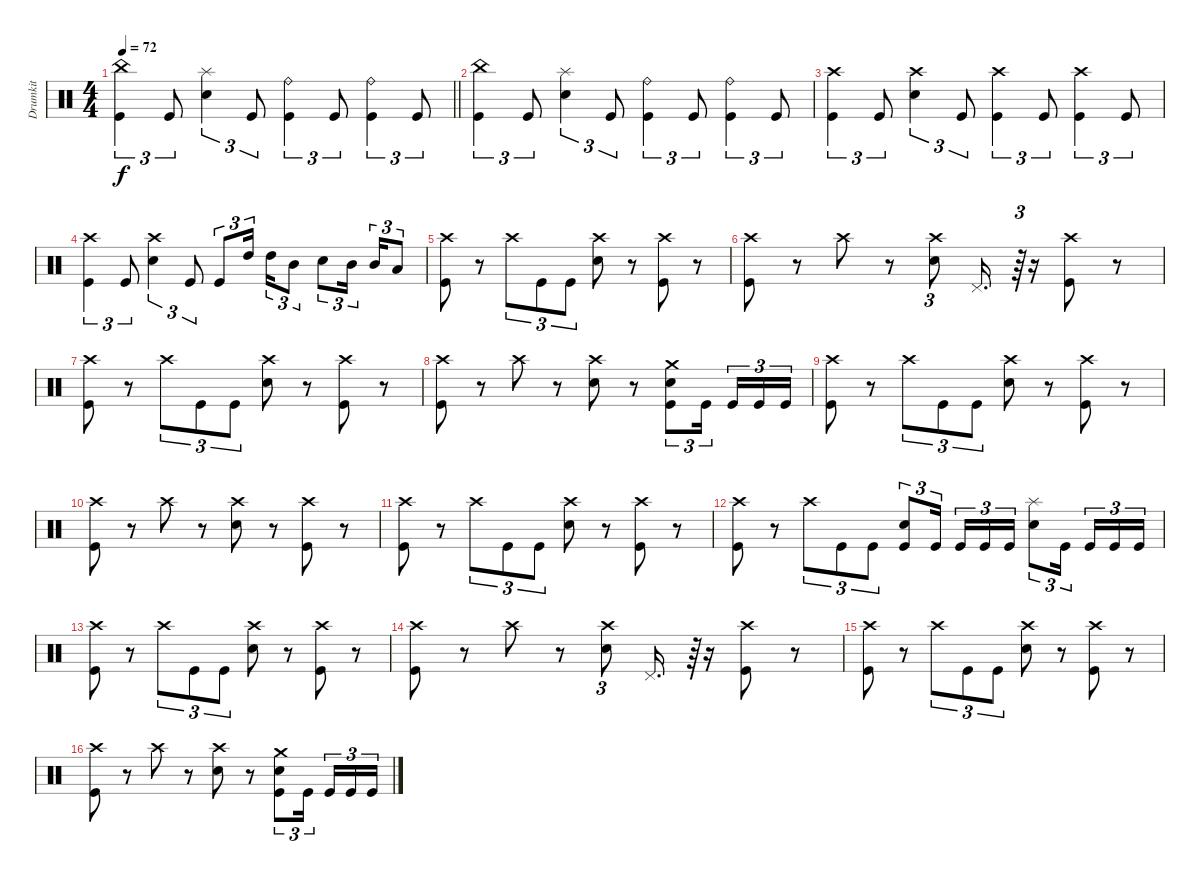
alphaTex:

\track ("Drumkit" "Drumkit") {instrument percussion}
\staff {score}
\articulation defaults
\ts (4 4)
\tempo 72
\clef neutral
\barLineRight lightlight
\ks c
("Kick (hit)" "China (hit)").4{tu (3 2) dy f} "Kick (hit)".8{tu (3 2)} ("Snare (hit) 2" "Splash (hit)").4{tu (3 2)} "Kick (hit)".8{tu (3 2)} ("Kick (hit)" "Ride (bell)").4{tu (3 2)} "Kick (hit)".8{tu (3 2)} ("Kick (hit)" "Ride (bell)").4{tu (3 2)} "Kick (hit)".8{tu (3 2)} |
("Kick (hit)" "China (hit)").4{tu (3 2)} "Kick (hit)".8{tu (3 2)} ("Snare (hit) 2" "Splash (hit)").4{tu (3 2)} "Kick (hit)".8{tu (3 2)} ("Kick (hit)" "Ride (bell)").4{tu (3 2)} "Kick (hit)".8{tu (3 2)} ("Kick (hit)" "Ride (bell)").4{tu (3 2)} "Kick (hit)".8{tu (3 2)} |
("Kick (hit)" "Crash high (hit)").4{tu (3 2)} "Kick (hit)".8{tu (3 2)} ("Snare (hit) 2" "Crash high (hit)").4{tu (3 2)} "Kick (hit)".8{tu (3 2)} ("Kick (hit)" "Crash high (hit)").4{tu (3 2)} "Kick (hit)".8{tu (3 2)} ("Kick (hit)" "Crash high (hit)").4{tu (3 2)} "Kick (hit)".8{tu (3 2)} |
("Kick (hit)" "Crash high (hit)").4{tu (3 2)} "Kick (hit)".8{tu (3 2)} ("Snare (hit) 2" "Crash high (hit)").4{tu (3 2)} "Kick (hit)".8{tu (3 2)} "Kick (hit)".8{tu (3 2)} "High Tom (hit)".16{tu (3 2) beam splitsecondary} "High Tom (hit)".16{tu (3 2)} "Mid Tom (hit)".8{tu (3 2)} "Snare (hit) 2".8{tu (3 2)} "Mid Tom (hit)".16{tu (3 2) beam splitsecondary} "Mid Tom (hit)".16{tu (3 2)} "Low Floor Tom (hit)".8{tu (3 2)} |
("Kick (hit)" "Crash high (hit)").8 r.8 "Crash high (hit)".8{tu (3 2)} "Kick (hit)".8{tu (3 2)} "Kick (hit)".8{tu (3 2)} ("Snare (hit) 2" "Crash high (hit)").8 r.8 ("Kick (hit)" "Crash high (hit)").8 r.8 |
("Kick (hit)" "Crash high (hit)").8 r.8 "Crash high (hit)".8 r.8 ("Snare (hit) 2" "Crash high (hit)").8{tu (3 2)} "Pedal Hi-Hat (hit)".16{d} r.64{tu (3 2)} r.16 ("Kick (hit)" "Crash high (hit)").8 r.8 |
("Kick (hit)" "Crash high (hit)").8 r.8 "Crash high (hit)".8{tu (3 2)} "Kick (hit)".8{tu (3 2)} "Kick (hit)".8{tu (3 2)} ("Snare (hit) 2" "Crash high (hit)").8 r.8 ("Kick (hit)" "Crash high (hit)").8 r.8 |
("Kick (hit)" "Crash high (hit)").8 r.8 "Crash high (hit)".8 r.8 ("Snare (hit) 2" "Crash high (hit)").8 r.8 ("Kick (hit)" "Snare (hit) 2" "Crash medium (hit)").8{tu (3 2)} "Kick (hit)".16{tu (3 2) beam splitsecondary} "Kick (hit)".16{tu (3 2)} "Kick (hit)".16{tu (3 2)} "Kick (hit)".16{tu (3 2)} |
("Kick (hit)" "Crash high (hit)").8 r.8 "Crash high (hit)".8{tu (3 2)} "Kick (hit)".8{tu (3 2)} "Kick (hit)".8{tu (3 2)} ("Snare (hit) 2" "Crash high (hit)").8 r.8 ("Kick (hit)" "Crash high (hit)").8 r.8 |
("Kick (hit)" "Crash high (hit)").8 r.8 "Crash high (hit)".8 r.8 ("Snare (hit) 2" "Crash high (hit)").8 r.8 ("Kick (hit)" "Crash high (hit)").8 r.8 |
("Kick (hit)" "Crash high (hit)").8 r.8 "Crash high (hit)".8{tu (3 2)} "Kick (hit)".8{tu (3 2)} "Kick (hit)".8{tu (3 2)} ("Snare (hit) 2" "Crash high (hit)").8 r.8 ("Kick (hit)" "Crash high (hit)").8 r.8 |
("Kick (hit)" "Crash high (hit)").8 r.8 "Crash high (hit)".8{tu (3 2)} "Kick (hit)".8{tu (3 2)} "Kick (hit)".8{tu (3 2)} ("Kick (hit)" "Snare (hit) 2").8{tu (3 2)} "Kick (hit)".16{tu (3 2) beam splitsecondary} "Kick (hit)".16{tu (3 2)} "Kick (hit)".16{tu (3 2)} "Kick (hit)".16{tu (3 2)} ("Snare (hit) 2" "Splash (hit)").8{tu (3 2)} "Kick (hit)".16{tu (3 2) beam splitsecondary} "Kick (hit)".16{tu (3 2)} "Kick (hit)".16{tu (3 2)} "Kick (hit)".16{tu (3 2)} |
("Kick (hit)" "Crash high (hit)").8 r.8 "Crash high (hit)".8{tu (3 2)} "Kick (hit)".8{tu (3 2)} "Kick (hit)".8{tu (3 2)} ("Snare (hit) 2" "Crash high (hit)").8 r.8 ("Kick (hit)" "Crash high (hit)").8 r.8 |
("Kick (hit)" "Crash high (hit)").8 r.8 "Crash high (hit)".8 r.8 ("Snare (hit) 2" "Crash high (hit)").8{tu (3 2)} "Pedal Hi-Hat (hit)".16{d} r.64{tu (3 2)} r.16 ("Kick (hit)" "Crash high (hit)").8 r.8 |
("Kick (hit)" "Crash high (hit)").8 r.8 "Crash high (hit)".8{tu (3 2)} "Kick (hit)".8{tu (3 2)} "Kick (hit)".8{tu (3 2)} ("Snare (hit) 2" "Crash high (hit)").8 r.8 ("Kick (hit)" "Crash high (hit)").8 r.8 |
("Kick (hit)" "Crash high (hit)").8 r.8 "Crash high (hit)".8 r.8 ("Snare (hit) 2" "Crash high (hit)").8 r.8 ("Kick (hit)" "Snare (hit) 2" "Crash medium (hit)").8{tu (3 2)} "Kick (hit)".16{tu (3 2) beam splitsecondary} "Kick (hit)".16{tu (3 2)} "Kick (hit)".16{tu (3 2)} "Kick (hit)".16{tu (3 2)}
